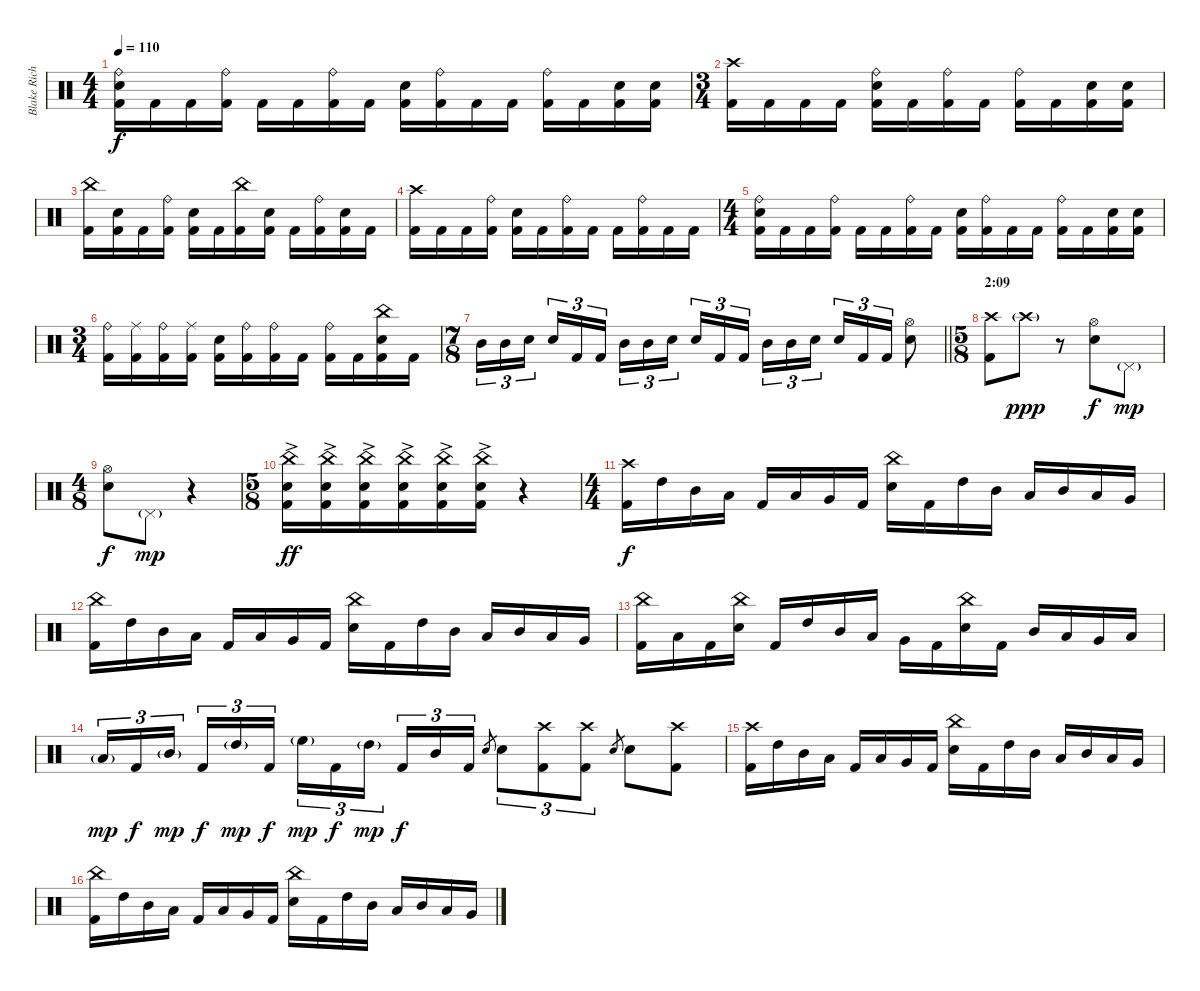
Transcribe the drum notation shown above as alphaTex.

\track ("Blake Richardson" "Blake Rich") {instrument percussion}
\staff {score}
\articulation defaults
\ts (4 4)
\tempo 110
\clef neutral
\ks c
("Ride (bell)" "Electric Snare (hit)" "Kick (hit) 2").16{dy f} "Kick (hit) 2".16 "Kick (hit) 2".16 ("Ride (bell)" "Kick (hit) 2").16 "Kick (hit) 2".16 "Kick (hit) 2".16 ("Ride (bell)" "Kick (hit) 2").16 "Kick (hit) 2".16 ("Electric Snare (hit)" "Kick (hit) 2").16 ("Ride (bell)" "Kick (hit) 2").16 "Kick (hit) 2".16 "Kick (hit) 2".16 ("Ride (bell)" "Kick (hit) 2").16 "Kick (hit) 2".16 ("Electric Snare (hit)" "Kick (hit) 2").16 ("Electric Snare (hit)" "Kick (hit) 2").16 |
\ts (3 4)
("Crash high (hit)" "Kick (hit) 2").16 "Kick (hit) 2".16 "Kick (hit) 2".16 "Kick (hit) 2".16 ("Ride (bell)" "Electric Snare (hit)" "Kick (hit) 2").16 "Kick (hit) 2".16 ("Ride (bell)" "Kick (hit) 2").16 "Kick (hit) 2".16 ("Ride (bell)" "Kick (hit) 2").16 "Kick (hit) 2".16 ("Electric Snare (hit)" "Kick (hit) 2").16 ("Electric Snare (hit)" "Kick (hit) 2").16 |
("China (hit)" "Kick (hit) 2").16 ("Electric Snare (hit)" "Kick (hit) 2").16 "Kick (hit) 2".16 ("Ride (bell)" "Kick (hit) 2").16 ("Electric Snare (hit)" "Kick (hit) 2").16 "Kick (hit) 2".16 ("China (hit)" "Kick (hit) 2").16 ("Electric Snare (hit)" "Kick (hit) 2").16 "Kick (hit) 2".16 ("Ride (bell)" "Kick (hit) 2").16 ("Electric Snare (hit)" "Kick (hit) 2").16 "Kick (hit) 2".16 |
("Crash high (hit)" "Kick (hit) 2").16 "Kick (hit) 2".16 "Kick (hit) 2".16 ("Ride (bell)" "Kick (hit) 2").16 ("Electric Snare (hit)" "Kick (hit) 2").16 "Kick (hit) 2".16 ("Ride (bell)" "Kick (hit) 2").16 "Kick (hit) 2".16 "Kick (hit) 2".16 ("Ride (bell)" "Kick (hit) 2").16 "Kick (hit) 2".16 "Kick (hit) 2".16 |
\ts (4 4)
("Ride (bell)" "Electric Snare (hit)" "Kick (hit) 2").16 "Kick (hit) 2".16 "Kick (hit) 2".16 ("Ride (bell)" "Kick (hit) 2").16 "Kick (hit) 2".16 "Kick (hit) 2".16 ("Ride (bell)" "Kick (hit) 2").16 "Kick (hit) 2".16 ("Electric Snare (hit)" "Kick (hit) 2").16 ("Ride (bell)" "Kick (hit) 2").16 "Kick (hit) 2".16 "Kick (hit) 2".16 ("Ride (bell)" "Kick (hit) 2").16 "Kick (hit) 2".16 ("Electric Snare (hit)" "Kick (hit) 2").16 ("Electric Snare (hit)" "Kick (hit) 2").16 |
\ts (3 4)
("Ride (bell)" "Kick (hit) 2").16 ("Ride (middle)" "Kick (hit) 2").16 ("Ride (bell)" "Kick (hit) 2").16 ("Ride (middle)" "Kick (hit) 2").16 ("Electric Snare (hit)" "Kick (hit) 2").16 ("Ride (bell)" "Kick (hit) 2").16 ("Ride (bell)" "Kick (hit) 2").16 "Kick (hit) 2".16 ("Ride (bell)" "Kick (hit) 2").16 "Kick (hit) 2".16 ("China (hit)" "Electric Snare (hit)" "Kick (hit) 2").16 "Kick (hit) 2".16 |
\ts (7 8)
\barLineRight lightlight "Mid Tom (hit)".16{tu (3 2)} "Mid Tom (hit)".16{tu (3 2)} "Electric Snare (hit)".16{tu (3 2) beam splitsecondary} "Electric Snare (hit)".16{tu (3 2)} "Kick (hit) 2".16{tu (3 2)} "Kick (hit) 2".16{tu (3 2) beam split} "Mid Tom (hit)".16{tu (3 2)} "Mid Tom (hit)".16{tu (3 2)} "Electric Snare (hit)".16{tu (3 2) beam splitsecondary} "Electric Snare (hit)".16{tu (3 2)} "Kick (hit) 2".16{tu (3 2)} "Kick (hit) 2".16{tu (3 2) beam split} "Mid Tom (hit)".16{tu (3 2)} "Mid Tom (hit)".16{tu (3 2)} "Electric Snare (hit)".16{tu (3 2) beam splitsecondary} "Electric Snare (hit)".16{tu (3 2)} "Kick (hit) 2".16{tu (3 2)} "Kick (hit) 2".16{tu (3 2)}
("Hi-Hat (open)" "Electric Snare (hit)").8 |
\ts (5 8)
\section ("" "2:09")
("Crash high (hit)" "Kick (hit) 2").8 "Crash high (hit)"{g}.8{dy ppp volume 0} r.8 ("Hi-Hat (open)" "Electric Snare (hit)").8{dy f volume 13} "Pedal Hi-Hat (hit)"{g}.8{dy mp} |
\ts (4 8)
("Hi-Hat (open)" "Electric Snare (hit)").8{dy f} "Pedal Hi-Hat (hit)"{g}.8{dy mp} r.4 |
\ts (5 8)
("China (hit)"{ac} "Electric Snare (hit)" "Kick (hit) 2").16{dy ff} ("China (hit)"{ac} "Electric Snare (hit)" "Kick (hit) 2").16{beam merge} ("China (hit)"{ac} "Electric Snare (hit)" "Kick (hit) 2").16 ("China (hit)"{ac} "Electric Snare (hit)" "Kick (hit) 2").16{beam merge} ("China (hit)"{ac} "Electric Snare (hit)" "Kick (hit) 2").16 ("China (hit)"{ac} "Electric Snare (hit)" "Kick (hit) 2").16 r.4{volume 0} |
\ts (4 4)
("Crash high (hit)" "Kick (hit) 2").16{dy f volume 13} "High Tom (hit)".16 "Mid Tom (hit)".16 "Low Tom (hit)".16 "Kick (hit) 2".16 "Low Tom (hit)".16 "Very Low Tom (hit)".16 "Kick (hit) 2".16 ("China (hit)" "Electric Snare (hit)").16 "Kick (hit) 2".16 "High Tom (hit)".16 "Mid Tom (hit)".16 "Low Tom (hit)".16 "Mid Tom (hit)".16 "Low Tom (hit)".16 "Very Low Tom (hit)".16 |
("China (hit)" "Kick (hit) 2").16 "High Tom (hit)".16 "Mid Tom (hit)".16 "Low Tom (hit)".16 "Kick (hit) 2".16 "Low Tom (hit)".16 "Very Low Tom (hit)".16 "Kick (hit) 2".16 ("China (hit)" "Electric Snare (hit)").16 "Kick (hit) 2".16 "High Tom (hit)".16 "Mid Tom (hit)".16 "Low Tom (hit)".16 "Mid Tom (hit)".16 "Low Tom (hit)".16 "Very Low Tom (hit)".16 |
("China (hit)" "Kick (hit) 2").16 "Low Tom (hit)".16 "Kick (hit) 2".16 ("China (hit)" "Electric Snare (hit)").16 "Kick (hit) 2".16 "High Tom (hit)".16 "Mid Tom (hit)".16 "Low Tom (hit)".16 "Very Low Tom (hit)".16 "Kick (hit) 2".16 ("China (hit)" "Electric Snare (hit)").16 "Kick (hit) 2".16 "Mid Tom (hit)".16 "Low Tom (hit)".16 "Very Low Tom (hit)".16 "Low Floor Tom (hit)".16 |
"Low Tom (hit)"{g}.16{tu (3 2) dy mp} "Kick (hit) 2".16{tu (3 2) dy f} "Mid Tom (hit)"{g}.16{tu (3 2) dy mp beam splitsecondary} "Kick (hit) 2".16{tu (3 2) dy f} "High Tom (hit)"{g}.16{tu (3 2) dy mp} "Kick (hit) 2".16{tu (3 2) dy f} "High Floor Tom (hit)"{g}.16{tu (3 2) dy mp} "Kick (hit) 2".16{tu (3 2) dy f} "High Tom (hit)"{g}.16{tu (3 2) dy mp beam splitsecondary} "Kick (hit) 2".16{tu (3 2) dy f} "Mid Tom (hit)".16{tu (3 2)} "Kick (hit) 2".16{tu (3 2)} "Electric Snare (hit)".8{gr} "Electric Snare (hit)".8{tu (3 2)} ("Crash high (hit)" "Kick (hit) 2").8{tu (3 2)} ("Crash high (hit)" "Kick (hit) 2").8{tu (3 2)} "Electric Snare (hit)".8{gr} "Electric Snare (hit)".8 ("Crash high (hit)" "Kick (hit) 2").8 |
("Crash high (hit)" "Kick (hit) 2").16 "High Tom (hit)".16 "Mid Tom (hit)".16 "Low Tom (hit)".16 "Kick (hit) 2".16 "Low Tom (hit)".16 "Very Low Tom (hit)".16 "Kick (hit) 2".16 ("China (hit)" "Electric Snare (hit)").16 "Kick (hit) 2".16 "High Tom (hit)".16 "Mid Tom (hit)".16 "Low Tom (hit)".16 "Mid Tom (hit)".16 "Low Tom (hit)".16 "Very Low Tom (hit)".16 |
("China (hit)" "Kick (hit) 2").16 "High Tom (hit)".16 "Mid Tom (hit)".16 "Low Tom (hit)".16 "Kick (hit) 2".16 "Low Tom (hit)".16 "Very Low Tom (hit)".16 "Kick (hit) 2".16 ("China (hit)" "Electric Snare (hit)").16 "Kick (hit) 2".16 "High Tom (hit)".16 "Mid Tom (hit)".16 "Low Tom (hit)".16 "Mid Tom (hit)".16 "Low Tom (hit)".16 "Very Low Tom (hit)".16
